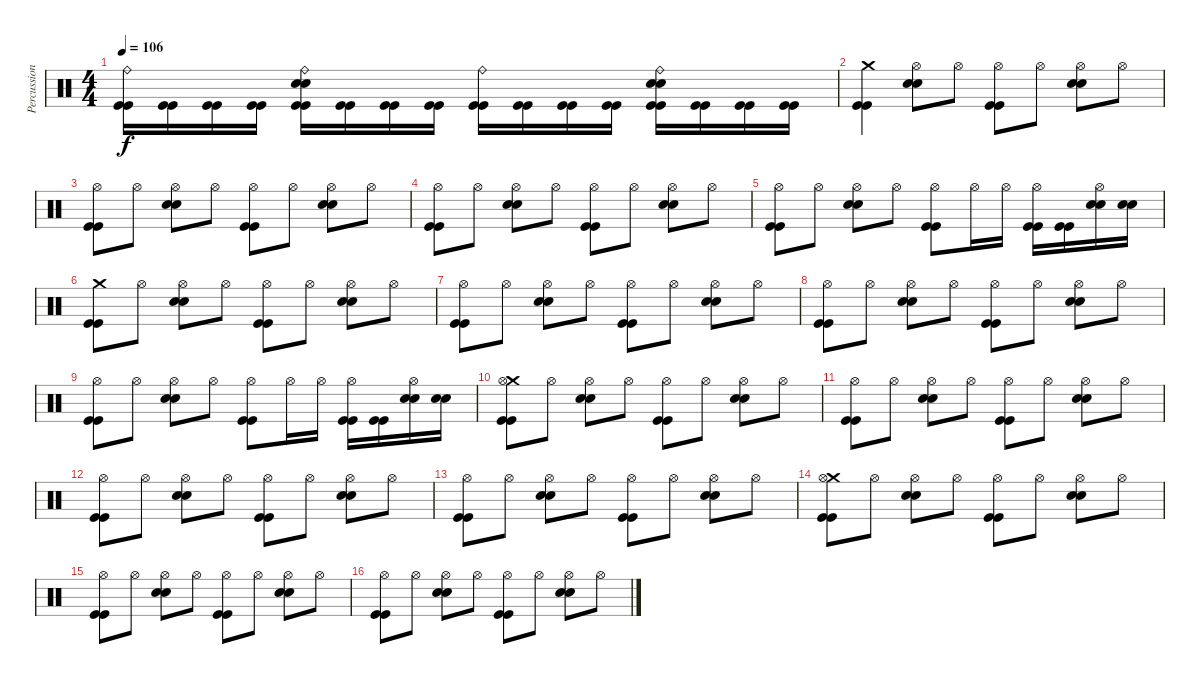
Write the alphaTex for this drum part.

\track ("Percussion" "Percussion") {instrument percussion}
\staff {score}
\articulation defaults
\ts (4 4)
\tempo 106
\clef neutral
\ks c
("Ride (bell)" "Kick (hit)" "Kick (hit)").16{dy f} ("Kick (hit)" "Kick (hit)").16 ("Kick (hit)" "Kick (hit)").16 ("Kick (hit)" "Kick (hit)").16 ("Ride (bell)" "Snare (hit) 2" "Snare (hit) 2" "Kick (hit)" "Kick (hit)").16 ("Kick (hit)" "Kick (hit)").16 ("Kick (hit)" "Kick (hit)").16 ("Kick (hit)" "Kick (hit)").16 ("Ride (bell)" "Kick (hit)" "Kick (hit)").16 ("Kick (hit)" "Kick (hit)").16 ("Kick (hit)" "Kick (hit)").16 ("Kick (hit)" "Kick (hit)").16 ("Ride (bell)" "Snare (hit) 2" "Snare (hit) 2" "Kick (hit)" "Kick (hit)").16 ("Kick (hit)" "Kick (hit)").16 ("Kick (hit)" "Kick (hit)").16 ("Kick (hit)" "Kick (hit)").16 |
("Crash medium (hit)" "Kick (hit)" "Kick (hit)").4 ("Hi-Hat (open)" "Snare (hit) 2" "Snare (hit) 2").8 "Hi-Hat (open)".8 ("Hi-Hat (open)" "Kick (hit)" "Kick (hit)").8 "Hi-Hat (open)".8 ("Hi-Hat (open)" "Snare (hit) 2" "Snare (hit) 2").8 "Hi-Hat (open)".8 |
("Hi-Hat (open)" "Kick (hit)" "Kick (hit)").8 "Hi-Hat (open)".8 ("Hi-Hat (open)" "Snare (hit) 2" "Snare (hit) 2").8 "Hi-Hat (open)".8 ("Hi-Hat (open)" "Kick (hit)" "Kick (hit)").8 "Hi-Hat (open)".8 ("Hi-Hat (open)" "Snare (hit) 2" "Snare (hit) 2").8 "Hi-Hat (open)".8 |
("Hi-Hat (open)" "Kick (hit)" "Kick (hit)").8 "Hi-Hat (open)".8 ("Hi-Hat (open)" "Snare (hit) 2" "Snare (hit) 2").8 "Hi-Hat (open)".8 ("Hi-Hat (open)" "Kick (hit)" "Kick (hit)").8 "Hi-Hat (open)".8 ("Hi-Hat (open)" "Snare (hit) 2" "Snare (hit) 2").8 "Hi-Hat (open)".8 |
("Hi-Hat (open)" "Kick (hit)" "Kick (hit)").8 "Hi-Hat (open)".8 ("Hi-Hat (open)" "Snare (hit) 2" "Snare (hit) 2").8 "Hi-Hat (open)".8 ("Hi-Hat (open)" "Kick (hit)" "Kick (hit)").8 "Hi-Hat (open)".16 "Hi-Hat (open)".16 ("Hi-Hat (open)" "Kick (hit)" "Kick (hit)").16 ("Kick (hit)" "Kick (hit)").16 ("Hi-Hat (open)" "Snare (hit) 2" "Snare (hit) 2").16 ("Snare (hit) 2" "Snare (hit) 2").16 |
("Crash medium (hit)" "Kick (hit)" "Kick (hit)").8 "Hi-Hat (open)".8 ("Hi-Hat (open)" "Snare (hit) 2" "Snare (hit) 2").8 "Hi-Hat (open)".8 ("Hi-Hat (open)" "Kick (hit)" "Kick (hit)").8 "Hi-Hat (open)".8 ("Hi-Hat (open)" "Snare (hit) 2" "Snare (hit) 2").8 "Hi-Hat (open)".8 |
("Hi-Hat (open)" "Kick (hit)" "Kick (hit)").8 "Hi-Hat (open)".8 ("Hi-Hat (open)" "Snare (hit) 2" "Snare (hit) 2").8 "Hi-Hat (open)".8 ("Hi-Hat (open)" "Kick (hit)" "Kick (hit)").8 "Hi-Hat (open)".8 ("Hi-Hat (open)" "Snare (hit) 2" "Snare (hit) 2").8 "Hi-Hat (open)".8 |
("Hi-Hat (open)" "Kick (hit)" "Kick (hit)").8 "Hi-Hat (open)".8 ("Hi-Hat (open)" "Snare (hit) 2" "Snare (hit) 2").8 "Hi-Hat (open)".8 ("Hi-Hat (open)" "Kick (hit)" "Kick (hit)").8 "Hi-Hat (open)".8 ("Hi-Hat (open)" "Snare (hit) 2" "Snare (hit) 2").8 "Hi-Hat (open)".8 |
("Hi-Hat (open)" "Kick (hit)" "Kick (hit)").8 "Hi-Hat (open)".8 ("Hi-Hat (open)" "Snare (hit) 2" "Snare (hit) 2").8 "Hi-Hat (open)".8 ("Hi-Hat (open)" "Kick (hit)" "Kick (hit)").8 "Hi-Hat (open)".16 "Hi-Hat (open)".16 ("Hi-Hat (open)" "Kick (hit)" "Kick (hit)").16 ("Kick (hit)" "Kick (hit)").16 ("Hi-Hat (open)" "Snare (hit) 2" "Snare (hit) 2").16 ("Snare (hit) 2" "Snare (hit) 2").16 |
("Crash medium (hit)" "Hi-Hat (open)" "Kick (hit)" "Kick (hit)").8 "Hi-Hat (open)".8 ("Hi-Hat (open)" "Snare (hit) 2" "Snare (hit) 2").8 "Hi-Hat (open)".8 ("Hi-Hat (open)" "Kick (hit)" "Kick (hit)").8 "Hi-Hat (open)".8 ("Hi-Hat (open)" "Snare (hit) 2" "Snare (hit) 2").8 "Hi-Hat (open)".8 |
("Hi-Hat (open)" "Kick (hit)" "Kick (hit)").8 "Hi-Hat (open)".8 ("Hi-Hat (open)" "Snare (hit) 2" "Snare (hit) 2").8 "Hi-Hat (open)".8 ("Hi-Hat (open)" "Kick (hit)" "Kick (hit)").8 "Hi-Hat (open)".8 ("Hi-Hat (open)" "Snare (hit) 2" "Snare (hit) 2").8 "Hi-Hat (open)".8 |
("Hi-Hat (open)" "Kick (hit)" "Kick (hit)").8 "Hi-Hat (open)".8 ("Hi-Hat (open)" "Snare (hit) 2" "Snare (hit) 2").8 "Hi-Hat (open)".8 ("Hi-Hat (open)" "Kick (hit)" "Kick (hit)").8 "Hi-Hat (open)".8 ("Hi-Hat (open)" "Snare (hit) 2" "Snare (hit) 2").8 "Hi-Hat (open)".8 |
("Hi-Hat (open)" "Kick (hit)" "Kick (hit)").8 "Hi-Hat (open)".8 ("Hi-Hat (open)" "Snare (hit) 2" "Snare (hit) 2").8 "Hi-Hat (open)".8 ("Hi-Hat (open)" "Kick (hit)" "Kick (hit)").8 "Hi-Hat (open)".8 ("Hi-Hat (open)" "Snare (hit) 2" "Snare (hit) 2").8 "Hi-Hat (open)".8 |
("Crash medium (hit)" "Hi-Hat (open)" "Kick (hit)" "Kick (hit)").8 "Hi-Hat (open)".8 ("Hi-Hat (open)" "Snare (hit) 2" "Snare (hit) 2").8 "Hi-Hat (open)".8 ("Hi-Hat (open)" "Kick (hit)" "Kick (hit)").8 "Hi-Hat (open)".8 ("Hi-Hat (open)" "Snare (hit) 2" "Snare (hit) 2").8 "Hi-Hat (open)".8 |
("Hi-Hat (open)" "Kick (hit)" "Kick (hit)").8 "Hi-Hat (open)".8 ("Hi-Hat (open)" "Snare (hit) 2" "Snare (hit) 2").8 "Hi-Hat (open)".8 ("Hi-Hat (open)" "Kick (hit)" "Kick (hit)").8 "Hi-Hat (open)".8 ("Hi-Hat (open)" "Snare (hit) 2" "Snare (hit) 2").8 "Hi-Hat (open)".8 |
("Hi-Hat (open)" "Kick (hit)" "Kick (hit)").8 "Hi-Hat (open)".8 ("Hi-Hat (open)" "Snare (hit) 2" "Snare (hit) 2").8 "Hi-Hat (open)".8 ("Hi-Hat (open)" "Kick (hit)" "Kick (hit)").8 "Hi-Hat (open)".8 ("Hi-Hat (open)" "Snare (hit) 2" "Snare (hit) 2").8 "Hi-Hat (open)".8
